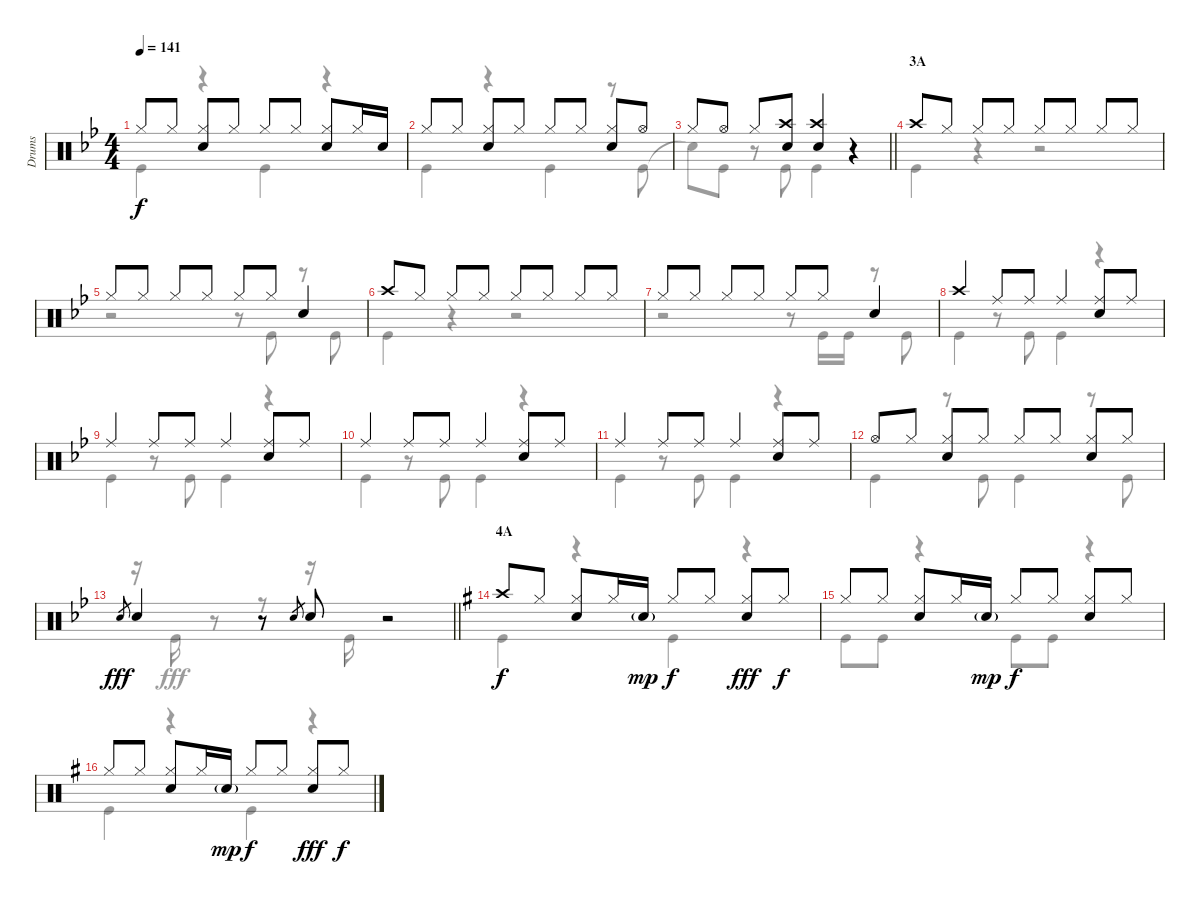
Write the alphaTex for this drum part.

\track ("Drums" "Drums") {instrument percussion}
\staff {score}
\articulation defaults
\voice
\ts (4 4)
\tempo 141
\clef neutral
\ks bb "Hi-Hat (closed)".8{dy f} "Hi-Hat (closed)".8
("Hi-Hat (closed)" "Snare (hit) 2").8 "Hi-Hat (closed)".8 "Hi-Hat (closed)".8 "Hi-Hat (closed)".8 ("Hi-Hat (closed)" "Snare (hit) 2").8 "Hi-Hat (closed)".16 "Snare (hit) 2".16 |
"Hi-Hat (closed)".8 "Hi-Hat (closed)".8 ("Hi-Hat (closed)" "Snare (hit) 2").8 "Hi-Hat (closed)".8 "Hi-Hat (closed)".8 "Hi-Hat (closed)".8 ("Hi-Hat (closed)" "Snare (hit) 2").8 "Hi-Hat (open)".8 |
\barLineRight lightlight "Hi-Hat (closed)".8 "Hi-Hat (open)".8 "Hi-Hat (closed)".8
("Crash high (hit)" "Snare (hit) 2").8 ("Crash high (hit)" "Snare (hit) 2").4 r.4 |
\section ("" "3A")
"Crash high (hit)".8 "Hi-Hat (closed)".8 "Hi-Hat (closed)".8 "Hi-Hat (closed)".8 "Hi-Hat (closed)".8 "Hi-Hat (closed)".8 "Hi-Hat (closed)".8 "Hi-Hat (closed)".8 |
"Hi-Hat (closed)".8 "Hi-Hat (closed)".8 "Hi-Hat (closed)".8 "Hi-Hat (closed)".8 "Hi-Hat (closed)".8 "Hi-Hat (closed)".8 "Snare (hit) 2".4 |
"Crash high (hit)".8 "Hi-Hat (closed)".8 "Hi-Hat (closed)".8 "Hi-Hat (closed)".8 "Hi-Hat (closed)".8 "Hi-Hat (closed)".8 "Hi-Hat (closed)".8 "Hi-Hat (closed)".8 |
"Hi-Hat (closed)".8 "Hi-Hat (closed)".8 "Hi-Hat (closed)".8 "Hi-Hat (closed)".8 "Hi-Hat (closed)".8 "Hi-Hat (closed)".8 "Snare (hit) 2".4 |
"Crash high (hit)".4 "Ride (middle)".8 "Ride (middle)".8 "Ride (middle)".4 ("Ride (middle)" "Snare (hit) 2").8 "Ride (middle)".8 |
"Ride (middle)".4 "Ride (middle)".8 "Ride (middle)".8 "Ride (middle)".4 ("Ride (middle)" "Snare (hit) 2").8 "Ride (middle)".8 |
"Ride (middle)".4 "Ride (middle)".8 "Ride (middle)".8 "Ride (middle)".4 ("Ride (middle)" "Snare (hit) 2").8 "Ride (middle)".8 |
"Ride (middle)".4 "Ride (middle)".8 "Ride (middle)".8 "Ride (middle)".4 ("Ride (middle)" "Snare (hit) 2").8 "Ride (middle)".8 |
"Hi-Hat (open)".8 "Hi-Hat (closed)".8 ("Hi-Hat (closed)" "Snare (hit) 2").8 "Hi-Hat (closed)".8 "Hi-Hat (closed)".8 "Hi-Hat (closed)".8 ("Hi-Hat (closed)" "Snare (hit) 2").8 "Hi-Hat (closed)".8 |
\barLineRight lightlight "Snare (hit) 2".8{gr dy fff} "Snare (hit) 2".4
r.8 "Snare (hit) 2".8{gr} "Snare (hit) 2".8 r.2 |
\section ("" "4A")
\ks g "Crash high (hit)".8{dy f} "Hi-Hat (closed)".8
("Hi-Hat (closed)" "Snare (hit) 2").8 "Hi-Hat (closed)".16 "Snare (hit) 2"{g}.16{dy mp} "Hi-Hat (closed)".8{dy f} "Hi-Hat (closed)".8 ("Hi-Hat (closed)" "Snare (hit) 2").8{dy fff} "Hi-Hat (closed)".8{dy f} |
"Hi-Hat (closed)".8 "Hi-Hat (closed)".8 ("Hi-Hat (closed)" "Snare (hit) 2").8 "Hi-Hat (closed)".16 "Snare (hit) 2"{g}.16{dy mp} "Hi-Hat (closed)".8{dy f} "Hi-Hat (closed)".8 ("Hi-Hat (closed)" "Snare (hit) 2").8 "Hi-Hat (closed)".8 |
"Hi-Hat (closed)".8 "Hi-Hat (closed)".8 ("Hi-Hat (closed)" "Snare (hit) 2").8 "Hi-Hat (closed)".16 "Snare (hit) 2"{g}.16{dy mp} "Hi-Hat (closed)".8{dy f} "Hi-Hat (closed)".8 ("Hi-Hat (closed)" "Snare (hit) 2").8{dy fff} "Hi-Hat (closed)".8{dy f}
\voice
\clef neutral
\ottava regular
\simile none
\ks bb "Kick (hit)".4{dy f}
r.4 "Kick (hit)".4 r.4 |
"Kick (hit)".4 r.4 "Kick (hit)".4 r.8 "Kick (hit)".8 |
\barLineRight lightlight "Snare (hit)"{t}.8 "Kick (hit)".8
r.8 "Kick (hit)".8 "Kick (hit)".4 r.4 |
"Kick (hit)".4 r.4 r.2 |
r.2 r.8 "Kick (hit)".8 r.8 "Kick (hit)".8 |
"Kick (hit)".4 r.4 r.2 |
r.2 r.8 "Kick (hit)".16 "Kick (hit)".16 r.8 "Kick (hit)".8 |
"Kick (hit)".4 r.8 "Kick (hit)".8 "Kick (hit)".4 r.4 |
"Kick (hit)".4 r.8 "Kick (hit)".8 "Kick (hit)".4 r.4 |
"Kick (hit)".4 r.8 "Kick (hit)".8 "Kick (hit)".4 r.4 |
"Kick (hit)".4 r.8 "Kick (hit)".8 "Kick (hit)".4 r.4 |
"Kick (hit)".4 r.8 "Kick (hit)".8 "Kick (hit)".4 r.8 "Kick (hit)".8 |
\barLineRight lightlight
r.16 "Kick (hit)".16{dy fff} r.8 r.8 r.16 "Kick (hit)".16 r.2 |
\ks g "Kick (hit)".4{dy f}
r.4 "Kick (hit)".4 r.4 |
"Kick (hit)".8 "Kick (hit)".8 r.4 "Kick (hit)".8 "Kick (hit)".8 r.4 |
"Kick (hit)".4 r.4 "Kick (hit)".4 r.4
